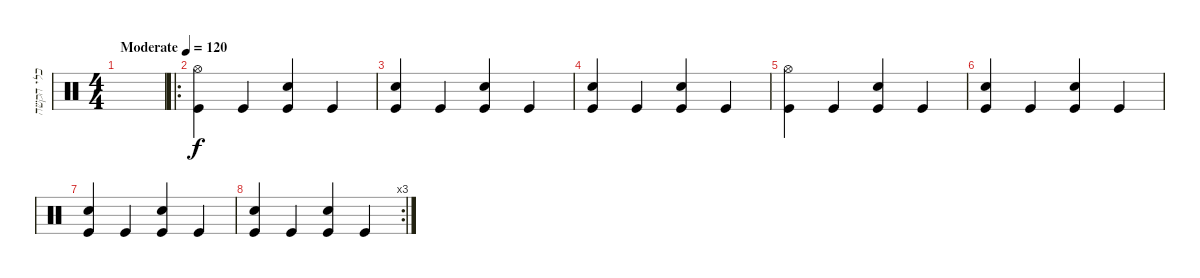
\track ("כלי הקשה" "כלי הקשה") {instrument percussion}
\staff {score}
\articulation defaults
\ts (4 4)
\tempo (120 "Moderate")
\clef neutral
\ks c
|
\ro
("Hi-Hat (open)" "Kick (hit)").4 "Kick (hit)".4 ("Snare (hit) 2" "Kick (hit)").4 "Kick (hit)".4 |
("Snare (hit) 2" "Kick (hit)").4 "Kick (hit)".4 ("Snare (hit) 2" "Kick (hit)").4 "Kick (hit)".4 |
("Snare (hit) 2" "Kick (hit)").4 "Kick (hit)".4 ("Snare (hit) 2" "Kick (hit)").4 "Kick (hit)".4 |
("Hi-Hat (open)" "Kick (hit)").4 "Kick (hit)".4 ("Snare (hit) 2" "Kick (hit)").4 "Kick (hit)".4 |
("Snare (hit) 2" "Kick (hit)").4 "Kick (hit)".4 ("Snare (hit) 2" "Kick (hit)").4 "Kick (hit)".4 |
("Snare (hit) 2" "Kick (hit)").4 "Kick (hit)".4 ("Snare (hit) 2" "Kick (hit)").4 "Kick (hit)".4 |
\rc 3
("Snare (hit) 2" "Kick (hit)").4 "Kick (hit)".4 ("Snare (hit) 2" "Kick (hit)").4 "Kick (hit)".4
